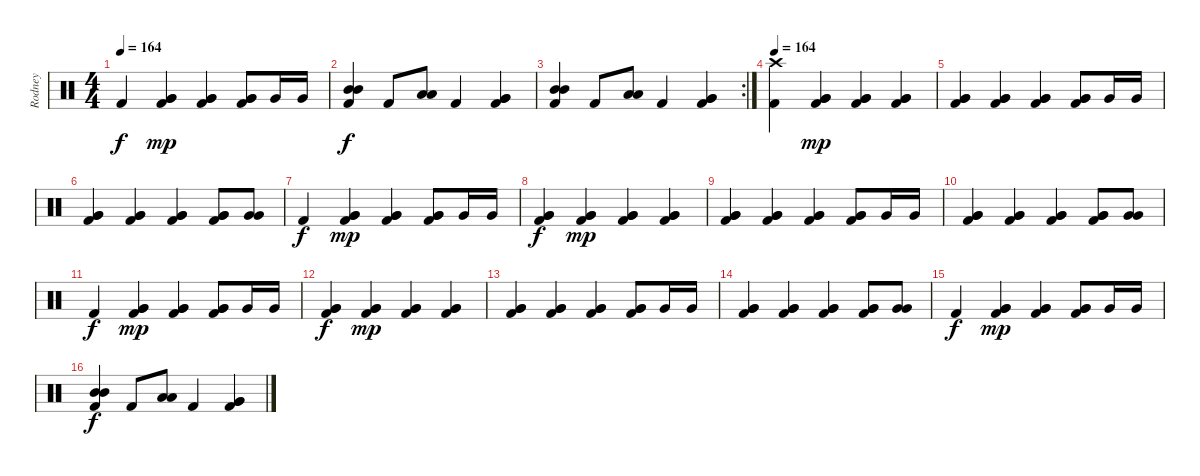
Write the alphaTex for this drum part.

\track ("Rodney" "Rodney") {instrument percussion}
\staff {score}
\articulation defaults
\ts (4 4)
\tempo 164
\clef neutral
\ks c "Kick (hit) 2".4{dy f}
("Very Low Tom (hit)" "Very Low Tom (hit)" "Kick (hit) 2").4{dy mp} ("Very Low Tom (hit)" "Very Low Tom (hit)" "Kick (hit) 2").4 ("Very Low Tom (hit)" "Very Low Tom (hit)" "Kick (hit) 2").8 "Very Low Tom (hit)".16 "Very Low Tom (hit)".16 |
("Mid Tom (hit)" "Mid Tom (hit)" "Kick (hit) 2").4{dy f} "Kick (hit) 2".8 ("Low Tom (hit)" "Low Tom (hit)").8 "Kick (hit) 2".4 ("Very Low Tom (hit)" "Very Low Tom (hit)" "Kick (hit) 2").4 |
\rc 2
("Mid Tom (hit)" "Mid Tom (hit)" "Kick (hit) 2").4 "Kick (hit) 2".8 ("Low Tom (hit)" "Low Tom (hit)").8 "Kick (hit) 2".4 ("Very Low Tom (hit)" "Very Low Tom (hit)" "Kick (hit) 2").4 |
\tempo 164
("Crash high (hit)" "Kick (hit) 2").4 ("Very Low Tom (hit)" "Very Low Tom (hit)" "Kick (hit) 2").4{dy mp} ("Very Low Tom (hit)" "Very Low Tom (hit)" "Kick (hit) 2").4 ("Very Low Tom (hit)" "Very Low Tom (hit)" "Kick (hit) 2").4 |
("Very Low Tom (hit)" "Very Low Tom (hit)" "Kick (hit) 2").4 ("Very Low Tom (hit)" "Very Low Tom (hit)" "Kick (hit) 2").4 ("Very Low Tom (hit)" "Very Low Tom (hit)" "Kick (hit) 2").4 ("Very Low Tom (hit)" "Very Low Tom (hit)" "Kick (hit) 2").8 "Very Low Tom (hit)".16 "Very Low Tom (hit)".16 |
("Very Low Tom (hit)" "Very Low Tom (hit)" "Kick (hit) 2").4 ("Very Low Tom (hit)" "Very Low Tom (hit)" "Kick (hit) 2").4 ("Very Low Tom (hit)" "Very Low Tom (hit)" "Kick (hit) 2").4 ("Very Low Tom (hit)" "Very Low Tom (hit)" "Kick (hit) 2").8 ("Very Low Tom (hit)" "Very Low Tom (hit)").8 |
"Kick (hit) 2".4{dy f} ("Very Low Tom (hit)" "Very Low Tom (hit)" "Kick (hit) 2").4{dy mp} ("Very Low Tom (hit)" "Very Low Tom (hit)" "Kick (hit) 2").4 ("Very Low Tom (hit)" "Very Low Tom (hit)" "Kick (hit) 2").8 "Very Low Tom (hit)".16 "Very Low Tom (hit)".16 |
("Very Low Tom (hit)" "Very Low Tom (hit)" "Kick (hit) 2").4{dy f} ("Very Low Tom (hit)" "Very Low Tom (hit)" "Kick (hit) 2").4{dy mp} ("Very Low Tom (hit)" "Very Low Tom (hit)" "Kick (hit) 2").4 ("Very Low Tom (hit)" "Very Low Tom (hit)" "Kick (hit) 2").4 |
("Very Low Tom (hit)" "Very Low Tom (hit)" "Kick (hit) 2").4 ("Very Low Tom (hit)" "Very Low Tom (hit)" "Kick (hit) 2").4 ("Very Low Tom (hit)" "Very Low Tom (hit)" "Kick (hit) 2").4 ("Very Low Tom (hit)" "Very Low Tom (hit)" "Kick (hit) 2").8 "Very Low Tom (hit)".16 "Very Low Tom (hit)".16 |
("Very Low Tom (hit)" "Very Low Tom (hit)" "Kick (hit) 2").4 ("Very Low Tom (hit)" "Very Low Tom (hit)" "Kick (hit) 2").4 ("Very Low Tom (hit)" "Very Low Tom (hit)" "Kick (hit) 2").4 ("Very Low Tom (hit)" "Very Low Tom (hit)" "Kick (hit) 2").8 ("Very Low Tom (hit)" "Very Low Tom (hit)").8 |
"Kick (hit) 2".4{dy f} ("Very Low Tom (hit)" "Very Low Tom (hit)" "Kick (hit) 2").4{dy mp} ("Very Low Tom (hit)" "Very Low Tom (hit)" "Kick (hit) 2").4 ("Very Low Tom (hit)" "Very Low Tom (hit)" "Kick (hit) 2").8 "Very Low Tom (hit)".16 "Very Low Tom (hit)".16 |
("Very Low Tom (hit)" "Very Low Tom (hit)" "Kick (hit) 2").4{dy f} ("Very Low Tom (hit)" "Very Low Tom (hit)" "Kick (hit) 2").4{dy mp} ("Very Low Tom (hit)" "Very Low Tom (hit)" "Kick (hit) 2").4 ("Very Low Tom (hit)" "Very Low Tom (hit)" "Kick (hit) 2").4 |
("Very Low Tom (hit)" "Very Low Tom (hit)" "Kick (hit) 2").4 ("Very Low Tom (hit)" "Very Low Tom (hit)" "Kick (hit) 2").4 ("Very Low Tom (hit)" "Very Low Tom (hit)" "Kick (hit) 2").4 ("Very Low Tom (hit)" "Very Low Tom (hit)" "Kick (hit) 2").8 "Very Low Tom (hit)".16 "Very Low Tom (hit)".16 |
("Very Low Tom (hit)" "Very Low Tom (hit)" "Kick (hit) 2").4 ("Very Low Tom (hit)" "Very Low Tom (hit)" "Kick (hit) 2").4 ("Very Low Tom (hit)" "Very Low Tom (hit)" "Kick (hit) 2").4 ("Very Low Tom (hit)" "Very Low Tom (hit)" "Kick (hit) 2").8 ("Very Low Tom (hit)" "Very Low Tom (hit)").8 |
"Kick (hit) 2".4{dy f} ("Very Low Tom (hit)" "Very Low Tom (hit)" "Kick (hit) 2").4{dy mp} ("Very Low Tom (hit)" "Very Low Tom (hit)" "Kick (hit) 2").4 ("Very Low Tom (hit)" "Very Low Tom (hit)" "Kick (hit) 2").8 "Very Low Tom (hit)".16 "Very Low Tom (hit)".16 |
("Mid Tom (hit)" "Mid Tom (hit)" "Kick (hit) 2").4{dy f} "Kick (hit) 2".8 ("Low Tom (hit)" "Low Tom (hit)").8 "Kick (hit) 2".4 ("Very Low Tom (hit)" "Very Low Tom (hit)" "Kick (hit) 2").4
